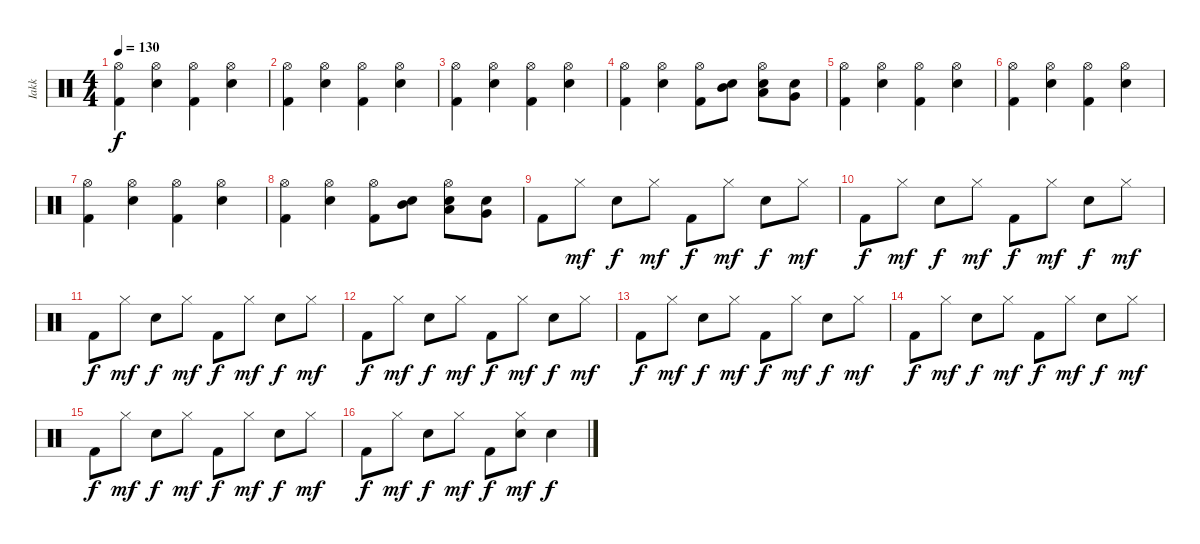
\track ("Iakk" "Iakk") {instrument percussion}
\staff {score}
\articulation defaults
\ts (4 4)
\tempo 130
\clef neutral
\ks c
("Hi-Hat (open)" "Kick (hit) 2").4{dy f} ("Hi-Hat (open)" "Electric Snare (hit)").4 ("Hi-Hat (open)" "Kick (hit) 2").4 ("Hi-Hat (open)" "Electric Snare (hit)").4 |
("Hi-Hat (open)" "Kick (hit) 2").4 ("Hi-Hat (open)" "Electric Snare (hit)").4 ("Hi-Hat (open)" "Kick (hit) 2").4 ("Hi-Hat (open)" "Electric Snare (hit)").4 |
("Hi-Hat (open)" "Kick (hit) 2").4 ("Hi-Hat (open)" "Electric Snare (hit)").4 ("Hi-Hat (open)" "Kick (hit) 2").4 ("Hi-Hat (open)" "Electric Snare (hit)").4 |
("Hi-Hat (open)" "Kick (hit) 2").4 ("Hi-Hat (open)" "Electric Snare (hit)").4 ("Hi-Hat (open)" "Kick (hit) 2").8 ("Electric Snare (hit)" "Mid Tom (hit)").8 ("Hi-Hat (open)" "Electric Snare (hit)" "Low Tom (hit)").8 ("Electric Snare (hit)" "Very Low Tom (hit)").8 |
("Hi-Hat (open)" "Kick (hit) 2").4 ("Hi-Hat (open)" "Electric Snare (hit)").4 ("Hi-Hat (open)" "Kick (hit) 2").4 ("Hi-Hat (open)" "Electric Snare (hit)").4 |
("Hi-Hat (open)" "Kick (hit) 2").4 ("Hi-Hat (open)" "Electric Snare (hit)").4 ("Hi-Hat (open)" "Kick (hit) 2").4 ("Hi-Hat (open)" "Electric Snare (hit)").4 |
("Hi-Hat (open)" "Kick (hit) 2").4 ("Hi-Hat (open)" "Electric Snare (hit)").4 ("Hi-Hat (open)" "Kick (hit) 2").4 ("Hi-Hat (open)" "Electric Snare (hit)").4 |
("Hi-Hat (open)" "Kick (hit) 2").4 ("Hi-Hat (open)" "Electric Snare (hit)").4 ("Hi-Hat (open)" "Kick (hit) 2").8 ("Electric Snare (hit)" "Mid Tom (hit)").8 ("Hi-Hat (open)" "Electric Snare (hit)" "Low Tom (hit)").8 ("Electric Snare (hit)" "Very Low Tom (hit)").8 |
"Kick (hit) 2".8 "Hi-Hat (closed)".8{dy mf} "Electric Snare (hit)".8{dy f} "Hi-Hat (closed)".8{dy mf} "Kick (hit) 2".8{dy f} "Hi-Hat (closed)".8{dy mf} "Electric Snare (hit)".8{dy f} "Hi-Hat (closed)".8{dy mf} |
"Kick (hit) 2".8{dy f} "Hi-Hat (closed)".8{dy mf} "Electric Snare (hit)".8{dy f} "Hi-Hat (closed)".8{dy mf} "Kick (hit) 2".8{dy f} "Hi-Hat (closed)".8{dy mf} "Electric Snare (hit)".8{dy f} "Hi-Hat (closed)".8{dy mf} |
"Kick (hit) 2".8{dy f} "Hi-Hat (closed)".8{dy mf} "Electric Snare (hit)".8{dy f} "Hi-Hat (closed)".8{dy mf} "Kick (hit) 2".8{dy f} "Hi-Hat (closed)".8{dy mf} "Electric Snare (hit)".8{dy f} "Hi-Hat (closed)".8{dy mf} |
"Kick (hit) 2".8{dy f} "Hi-Hat (closed)".8{dy mf} "Electric Snare (hit)".8{dy f} "Hi-Hat (closed)".8{dy mf} "Kick (hit) 2".8{dy f} "Hi-Hat (closed)".8{dy mf} "Electric Snare (hit)".8{dy f} "Hi-Hat (closed)".8{dy mf} |
"Kick (hit) 2".8{dy f} "Hi-Hat (closed)".8{dy mf} "Electric Snare (hit)".8{dy f} "Hi-Hat (closed)".8{dy mf} "Kick (hit) 2".8{dy f} "Hi-Hat (closed)".8{dy mf} "Electric Snare (hit)".8{dy f} "Hi-Hat (closed)".8{dy mf} |
"Kick (hit) 2".8{dy f} "Hi-Hat (closed)".8{dy mf} "Electric Snare (hit)".8{dy f} "Hi-Hat (closed)".8{dy mf} "Kick (hit) 2".8{dy f} "Hi-Hat (closed)".8{dy mf} "Electric Snare (hit)".8{dy f} "Hi-Hat (closed)".8{dy mf} |
"Kick (hit) 2".8{dy f} "Hi-Hat (closed)".8{dy mf} "Electric Snare (hit)".8{dy f} "Hi-Hat (closed)".8{dy mf} "Kick (hit) 2".8{dy f} "Hi-Hat (closed)".8{dy mf} "Electric Snare (hit)".8{dy f} "Hi-Hat (closed)".8{dy mf} |
"Kick (hit) 2".8{dy f} "Hi-Hat (closed)".8{dy mf} "Electric Snare (hit)".8{dy f} "Hi-Hat (closed)".8{dy mf} "Kick (hit) 2".8{dy f} ("Hi-Hat (closed)" "Electric Snare (hit)").8{dy mf} "Electric Snare (hit)".4{dy f}
